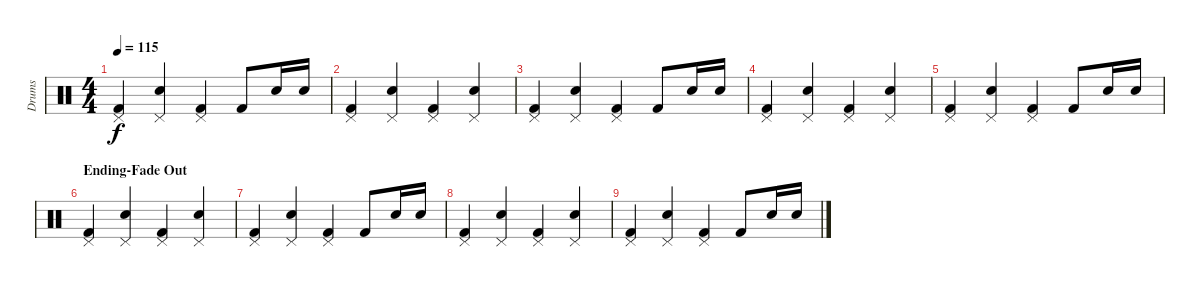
\track ("Drums" "Drums") {instrument percussion}
\staff {score}
\articulation defaults
\ts (4 4)
\tempo 115
\clef neutral
\ks c
("Pedal Hi-Hat (hit)" "Kick (hit) 2").4{dy f} ("Pedal Hi-Hat (hit)" "Electric Snare (hit)").4 ("Pedal Hi-Hat (hit)" "Kick (hit) 2").4 "Kick (hit) 2".8 "Snare (hit) 2".16 "Electric Snare (hit)".16 |
("Pedal Hi-Hat (hit)" "Kick (hit) 2").4 ("Pedal Hi-Hat (hit)" "Electric Snare (hit)").4 ("Pedal Hi-Hat (hit)" "Kick (hit) 2").4 ("Pedal Hi-Hat (hit)" "Electric Snare (hit)").4 |
("Pedal Hi-Hat (hit)" "Kick (hit) 2").4 ("Pedal Hi-Hat (hit)" "Electric Snare (hit)").4 ("Pedal Hi-Hat (hit)" "Kick (hit) 2").4 "Kick (hit) 2".8 "Snare (hit) 2".16 "Electric Snare (hit)".16 |
("Pedal Hi-Hat (hit)" "Kick (hit) 2").4 ("Pedal Hi-Hat (hit)" "Electric Snare (hit)").4 ("Pedal Hi-Hat (hit)" "Kick (hit) 2").4 ("Pedal Hi-Hat (hit)" "Electric Snare (hit)").4 |
("Pedal Hi-Hat (hit)" "Kick (hit) 2").4 ("Pedal Hi-Hat (hit)" "Electric Snare (hit)").4 ("Pedal Hi-Hat (hit)" "Kick (hit) 2").4 "Kick (hit) 2".8 "Snare (hit) 2".16 "Electric Snare (hit)".16 |
\section ("" "Ending-Fade Out")
("Pedal Hi-Hat (hit)" "Kick (hit) 2").4 ("Pedal Hi-Hat (hit)" "Electric Snare (hit)").4 ("Pedal Hi-Hat (hit)" "Kick (hit) 2").4 ("Pedal Hi-Hat (hit)" "Electric Snare (hit)").4 |
("Pedal Hi-Hat (hit)" "Kick (hit) 2").4 ("Pedal Hi-Hat (hit)" "Electric Snare (hit)").4 ("Pedal Hi-Hat (hit)" "Kick (hit) 2").4 "Kick (hit) 2".8 "Snare (hit) 2".16 "Electric Snare (hit)".16 |
("Pedal Hi-Hat (hit)" "Kick (hit) 2").4 ("Pedal Hi-Hat (hit)" "Electric Snare (hit)").4 ("Pedal Hi-Hat (hit)" "Kick (hit) 2").4 ("Pedal Hi-Hat (hit)" "Electric Snare (hit)").4 |
("Pedal Hi-Hat (hit)" "Kick (hit) 2").4 ("Pedal Hi-Hat (hit)" "Electric Snare (hit)").4 ("Pedal Hi-Hat (hit)" "Kick (hit) 2").4 "Kick (hit) 2".8 "Snare (hit) 2".16 "Electric Snare (hit)".16
